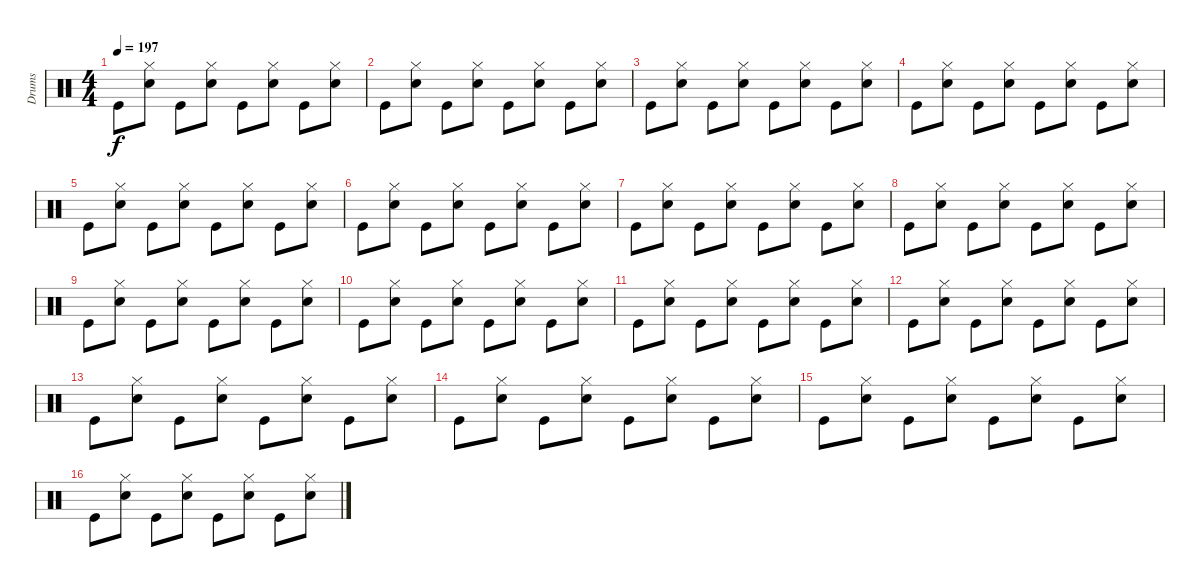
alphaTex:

\track ("Drums" "Drums") {instrument percussion}
\staff {score}
\articulation defaults
\ts (4 4)
\tempo 197
\clef neutral
\ks c "Kick (hit)".8{dy f}
("Hi-Hat (closed)" "Snare (hit) 2").8 "Kick (hit)".8 ("Hi-Hat (closed)" "Snare (hit) 2").8 "Kick (hit)".8 ("Hi-Hat (closed)" "Snare (hit) 2").8 "Kick (hit)".8 ("Hi-Hat (closed)" "Snare (hit) 2").8 |
"Kick (hit)".8 ("Hi-Hat (closed)" "Snare (hit) 2").8 "Kick (hit)".8 ("Hi-Hat (closed)" "Snare (hit) 2").8 "Kick (hit)".8 ("Hi-Hat (closed)" "Snare (hit) 2").8 "Kick (hit)".8 ("Hi-Hat (closed)" "Snare (hit) 2").8 |
"Kick (hit)".8 ("Hi-Hat (closed)" "Snare (hit) 2").8 "Kick (hit)".8 ("Hi-Hat (closed)" "Snare (hit) 2").8 "Kick (hit)".8 ("Hi-Hat (closed)" "Snare (hit) 2").8 "Kick (hit)".8 ("Hi-Hat (closed)" "Snare (hit) 2").8 |
"Kick (hit)".8 ("Hi-Hat (closed)" "Snare (hit) 2").8 "Kick (hit)".8 ("Hi-Hat (closed)" "Snare (hit) 2").8 "Kick (hit)".8 ("Hi-Hat (closed)" "Snare (hit) 2").8 "Kick (hit)".8 ("Hi-Hat (closed)" "Snare (hit) 2").8 |
"Kick (hit)".8 ("Hi-Hat (closed)" "Snare (hit) 2").8 "Kick (hit)".8 ("Hi-Hat (closed)" "Snare (hit) 2").8 "Kick (hit)".8 ("Hi-Hat (closed)" "Snare (hit) 2").8 "Kick (hit)".8 ("Hi-Hat (closed)" "Snare (hit) 2").8 |
"Kick (hit)".8 ("Hi-Hat (closed)" "Snare (hit) 2").8 "Kick (hit)".8 ("Hi-Hat (closed)" "Snare (hit) 2").8 "Kick (hit)".8 ("Hi-Hat (closed)" "Snare (hit) 2").8 "Kick (hit)".8 ("Hi-Hat (closed)" "Snare (hit) 2").8 |
"Kick (hit)".8 ("Hi-Hat (closed)" "Snare (hit) 2").8 "Kick (hit)".8 ("Hi-Hat (closed)" "Snare (hit) 2").8 "Kick (hit)".8 ("Hi-Hat (closed)" "Snare (hit) 2").8 "Kick (hit)".8 ("Hi-Hat (closed)" "Snare (hit) 2").8 |
"Kick (hit)".8 ("Hi-Hat (closed)" "Snare (hit) 2").8 "Kick (hit)".8 ("Hi-Hat (closed)" "Snare (hit) 2").8 "Kick (hit)".8 ("Hi-Hat (closed)" "Snare (hit) 2").8 "Kick (hit)".8 ("Hi-Hat (closed)" "Snare (hit) 2").8 |
"Kick (hit)".8 ("Hi-Hat (closed)" "Snare (hit) 2").8 "Kick (hit)".8 ("Hi-Hat (closed)" "Snare (hit) 2").8 "Kick (hit)".8 ("Hi-Hat (closed)" "Snare (hit) 2").8 "Kick (hit)".8 ("Hi-Hat (closed)" "Snare (hit) 2").8 |
"Kick (hit)".8 ("Hi-Hat (closed)" "Snare (hit) 2").8 "Kick (hit)".8 ("Hi-Hat (closed)" "Snare (hit) 2").8 "Kick (hit)".8 ("Hi-Hat (closed)" "Snare (hit) 2").8 "Kick (hit)".8 ("Hi-Hat (closed)" "Snare (hit) 2").8 |
"Kick (hit)".8 ("Hi-Hat (closed)" "Snare (hit) 2").8 "Kick (hit)".8 ("Hi-Hat (closed)" "Snare (hit) 2").8 "Kick (hit)".8 ("Hi-Hat (closed)" "Snare (hit) 2").8 "Kick (hit)".8 ("Hi-Hat (closed)" "Snare (hit) 2").8 |
"Kick (hit)".8 ("Hi-Hat (closed)" "Snare (hit) 2").8 "Kick (hit)".8 ("Hi-Hat (closed)" "Snare (hit) 2").8 "Kick (hit)".8 ("Hi-Hat (closed)" "Snare (hit) 2").8 "Kick (hit)".8 ("Hi-Hat (closed)" "Snare (hit) 2").8 |
"Kick (hit)".8 ("Hi-Hat (closed)" "Snare (hit) 2").8 "Kick (hit)".8 ("Hi-Hat (closed)" "Snare (hit) 2").8 "Kick (hit)".8 ("Hi-Hat (closed)" "Snare (hit) 2").8 "Kick (hit)".8 ("Hi-Hat (closed)" "Snare (hit) 2").8 |
"Kick (hit)".8 ("Hi-Hat (closed)" "Snare (hit) 2").8 "Kick (hit)".8 ("Hi-Hat (closed)" "Snare (hit) 2").8 "Kick (hit)".8 ("Hi-Hat (closed)" "Snare (hit) 2").8 "Kick (hit)".8 ("Hi-Hat (closed)" "Snare (hit) 2").8 |
"Kick (hit)".8 ("Hi-Hat (closed)" "Snare (hit) 2").8 "Kick (hit)".8 ("Hi-Hat (closed)" "Snare (hit) 2").8 "Kick (hit)".8 ("Hi-Hat (closed)" "Snare (hit) 2").8 "Kick (hit)".8 ("Hi-Hat (closed)" "Snare (hit) 2").8 |
"Kick (hit)".8 ("Hi-Hat (closed)" "Snare (hit) 2").8 "Kick (hit)".8 ("Hi-Hat (closed)" "Snare (hit) 2").8 "Kick (hit)".8 ("Hi-Hat (closed)" "Snare (hit) 2").8 "Kick (hit)".8 ("Hi-Hat (closed)" "Snare (hit) 2").8
